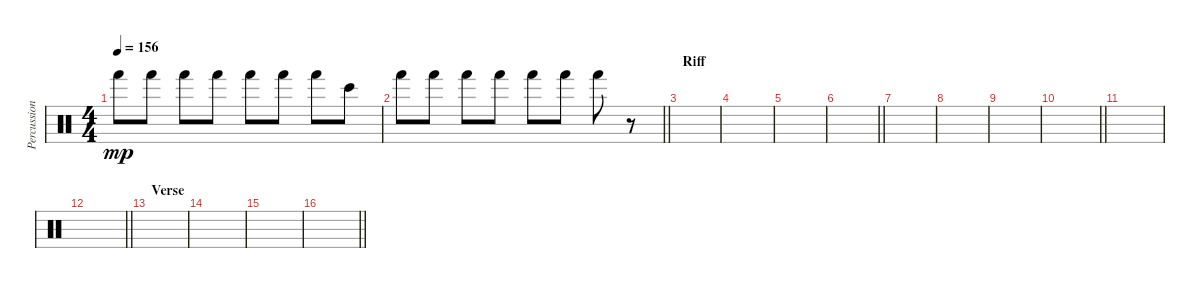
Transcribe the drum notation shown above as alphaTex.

\track ("Percussion" "Percussion") {instrument percussion}
\staff {score}
\articulation defaults
\ts (4 4)
\tempo 156
\clef neutral
\ks c "Hand (hit)".8{dy mp} "Hand (hit)".8 "Hand (hit)".8 "Hand (hit)".8 "Hand (hit)".8 "Hand (hit)".8 "Hand (hit)".8 "Bongo High (hit)".8
|
\barLineRight lightlight "Hand (hit)".8 "Hand (hit)".8 "Hand (hit)".8 "Hand (hit)".8 "Hand (hit)".8 "Hand (hit)".8 "Hand (hit)".8
r.8 |
\section ("" "Riff")
|
|
|
\barLineRight lightlight
|
|
|
|
\barLineRight lightlight
|
|
\barLineRight lightlight
|
\section ("" "Verse")
|
|
|
\barLineRight lightlight
